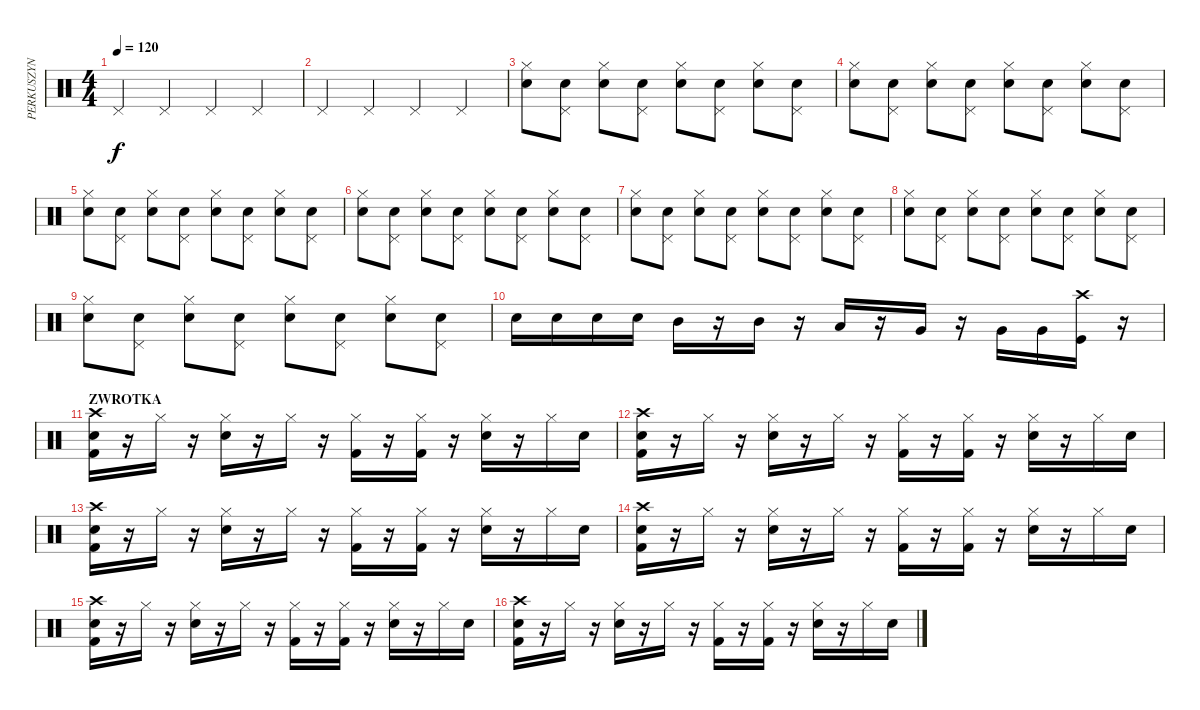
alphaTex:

\track ("PERKUSZYN" "PERKUSZYN") {instrument percussion}
\staff {score}
\articulation defaults
\ts (4 4)
\tempo 120
\clef neutral
\ks c "Pedal Hi-Hat (hit)".4{dy f} "Pedal Hi-Hat (hit)".4 "Pedal Hi-Hat (hit)".4 "Pedal Hi-Hat (hit)".4
|
"Pedal Hi-Hat (hit)".4 "Pedal Hi-Hat (hit)".4 "Pedal Hi-Hat (hit)".4 "Pedal Hi-Hat (hit)".4 |
("Hi-Hat (closed)" "Snare (hit) 2").8 ("Pedal Hi-Hat (hit)" "Snare (hit) 2").8 ("Hi-Hat (closed)" "Snare (hit) 2").8 ("Pedal Hi-Hat (hit)" "Snare (hit) 2").8 ("Hi-Hat (closed)" "Snare (hit) 2").8 ("Pedal Hi-Hat (hit)" "Snare (hit) 2").8 ("Hi-Hat (closed)" "Snare (hit) 2").8 ("Pedal Hi-Hat (hit)" "Snare (hit) 2").8 |
("Hi-Hat (closed)" "Snare (hit) 2").8 ("Pedal Hi-Hat (hit)" "Snare (hit) 2").8 ("Hi-Hat (closed)" "Snare (hit) 2").8 ("Pedal Hi-Hat (hit)" "Snare (hit) 2").8 ("Hi-Hat (closed)" "Snare (hit) 2").8 ("Pedal Hi-Hat (hit)" "Snare (hit) 2").8 ("Hi-Hat (closed)" "Snare (hit) 2").8 ("Pedal Hi-Hat (hit)" "Snare (hit) 2").8 |
("Hi-Hat (closed)" "Snare (hit) 2").8 ("Pedal Hi-Hat (hit)" "Snare (hit) 2").8 ("Hi-Hat (closed)" "Snare (hit) 2").8 ("Pedal Hi-Hat (hit)" "Snare (hit) 2").8 ("Hi-Hat (closed)" "Snare (hit) 2").8 ("Pedal Hi-Hat (hit)" "Snare (hit) 2").8 ("Hi-Hat (closed)" "Snare (hit) 2").8 ("Pedal Hi-Hat (hit)" "Snare (hit) 2").8 |
("Hi-Hat (closed)" "Snare (hit) 2").8 ("Pedal Hi-Hat (hit)" "Snare (hit) 2").8 ("Hi-Hat (closed)" "Snare (hit) 2").8 ("Pedal Hi-Hat (hit)" "Snare (hit) 2").8 ("Hi-Hat (closed)" "Snare (hit) 2").8 ("Pedal Hi-Hat (hit)" "Snare (hit) 2").8 ("Hi-Hat (closed)" "Snare (hit) 2").8 ("Pedal Hi-Hat (hit)" "Snare (hit) 2").8 |
("Hi-Hat (closed)" "Snare (hit) 2").8 ("Pedal Hi-Hat (hit)" "Snare (hit) 2").8 ("Hi-Hat (closed)" "Snare (hit) 2").8 ("Pedal Hi-Hat (hit)" "Snare (hit) 2").8 ("Hi-Hat (closed)" "Snare (hit) 2").8 ("Pedal Hi-Hat (hit)" "Snare (hit) 2").8 ("Hi-Hat (closed)" "Snare (hit) 2").8 ("Pedal Hi-Hat (hit)" "Snare (hit) 2").8 |
("Hi-Hat (closed)" "Snare (hit) 2").8 ("Pedal Hi-Hat (hit)" "Snare (hit) 2").8 ("Hi-Hat (closed)" "Snare (hit) 2").8 ("Pedal Hi-Hat (hit)" "Snare (hit) 2").8 ("Hi-Hat (closed)" "Snare (hit) 2").8 ("Pedal Hi-Hat (hit)" "Snare (hit) 2").8 ("Hi-Hat (closed)" "Snare (hit) 2").8 ("Pedal Hi-Hat (hit)" "Snare (hit) 2").8 |
("Hi-Hat (closed)" "Snare (hit) 2").8 ("Pedal Hi-Hat (hit)" "Snare (hit) 2").8 ("Hi-Hat (closed)" "Snare (hit) 2").8 ("Pedal Hi-Hat (hit)" "Snare (hit) 2").8 ("Hi-Hat (closed)" "Snare (hit) 2").8 ("Pedal Hi-Hat (hit)" "Snare (hit) 2").8 ("Hi-Hat (closed)" "Snare (hit) 2").8 ("Pedal Hi-Hat (hit)" "Snare (hit) 2").8 |
"Snare (hit) 2".16 "Snare (hit) 2".16 "Snare (hit) 2".16 "Snare (hit) 2".16 "Mid Tom (hit)".16 r.16 "Mid Tom (hit)".16 r.16 "Low Tom (hit)".16 r.16 "Very Low Tom (hit)".16 r.16 "Very Low Tom (hit)".16 "Very Low Tom (hit)".16 ("Kick (hit)" "Crash high (hit)").16 r.16 |
\section ("" "ZWROTKA")
("Crash high (hit)" "Snare (hit) 2" "Kick (hit) 2").16 r.16 "Hi-Hat (closed)".16 r.16 ("Hi-Hat (closed)" "Snare (hit) 2").16 r.16 "Hi-Hat (closed)".16 r.16 ("Hi-Hat (closed)" "Kick (hit) 2").16 r.16 ("Hi-Hat (closed)" "Kick (hit) 2").16 r.16 ("Hi-Hat (closed)" "Snare (hit) 2").16 r.16 "Hi-Hat (closed)".16 "Snare (hit) 2".16 |
("Crash high (hit)" "Snare (hit) 2" "Kick (hit) 2").16 r.16 "Hi-Hat (closed)".16 r.16 ("Hi-Hat (closed)" "Snare (hit) 2").16 r.16 "Hi-Hat (closed)".16 r.16 ("Hi-Hat (closed)" "Kick (hit) 2").16 r.16 ("Hi-Hat (closed)" "Kick (hit) 2").16 r.16 ("Hi-Hat (closed)" "Snare (hit) 2").16 r.16 "Hi-Hat (closed)".16 "Snare (hit) 2".16 |
("Crash high (hit)" "Snare (hit) 2" "Kick (hit) 2").16 r.16 "Hi-Hat (closed)".16 r.16 ("Hi-Hat (closed)" "Snare (hit) 2").16 r.16 "Hi-Hat (closed)".16 r.16 ("Hi-Hat (closed)" "Kick (hit) 2").16 r.16 ("Hi-Hat (closed)" "Kick (hit) 2").16 r.16 ("Hi-Hat (closed)" "Snare (hit) 2").16 r.16 "Hi-Hat (closed)".16 "Snare (hit) 2".16 |
("Crash high (hit)" "Snare (hit) 2" "Kick (hit) 2").16 r.16 "Hi-Hat (closed)".16 r.16 ("Hi-Hat (closed)" "Snare (hit) 2").16 r.16 "Hi-Hat (closed)".16 r.16 ("Hi-Hat (closed)" "Kick (hit) 2").16 r.16 ("Hi-Hat (closed)" "Kick (hit) 2").16 r.16 ("Hi-Hat (closed)" "Snare (hit) 2").16 r.16 "Hi-Hat (closed)".16 "Snare (hit) 2".16 |
("Crash high (hit)" "Snare (hit) 2" "Kick (hit) 2").16 r.16 "Hi-Hat (closed)".16 r.16 ("Hi-Hat (closed)" "Snare (hit) 2").16 r.16 "Hi-Hat (closed)".16 r.16 ("Hi-Hat (closed)" "Kick (hit) 2").16 r.16 ("Hi-Hat (closed)" "Kick (hit) 2").16 r.16 ("Hi-Hat (closed)" "Snare (hit) 2").16 r.16 "Hi-Hat (closed)".16 "Snare (hit) 2".16 |
("Crash high (hit)" "Snare (hit) 2" "Kick (hit) 2").16 r.16 "Hi-Hat (closed)".16 r.16 ("Hi-Hat (closed)" "Snare (hit) 2").16 r.16 "Hi-Hat (closed)".16 r.16 ("Hi-Hat (closed)" "Kick (hit) 2").16 r.16 ("Hi-Hat (closed)" "Kick (hit) 2").16 r.16 ("Hi-Hat (closed)" "Snare (hit) 2").16 r.16 "Hi-Hat (closed)".16 "Snare (hit) 2".16
